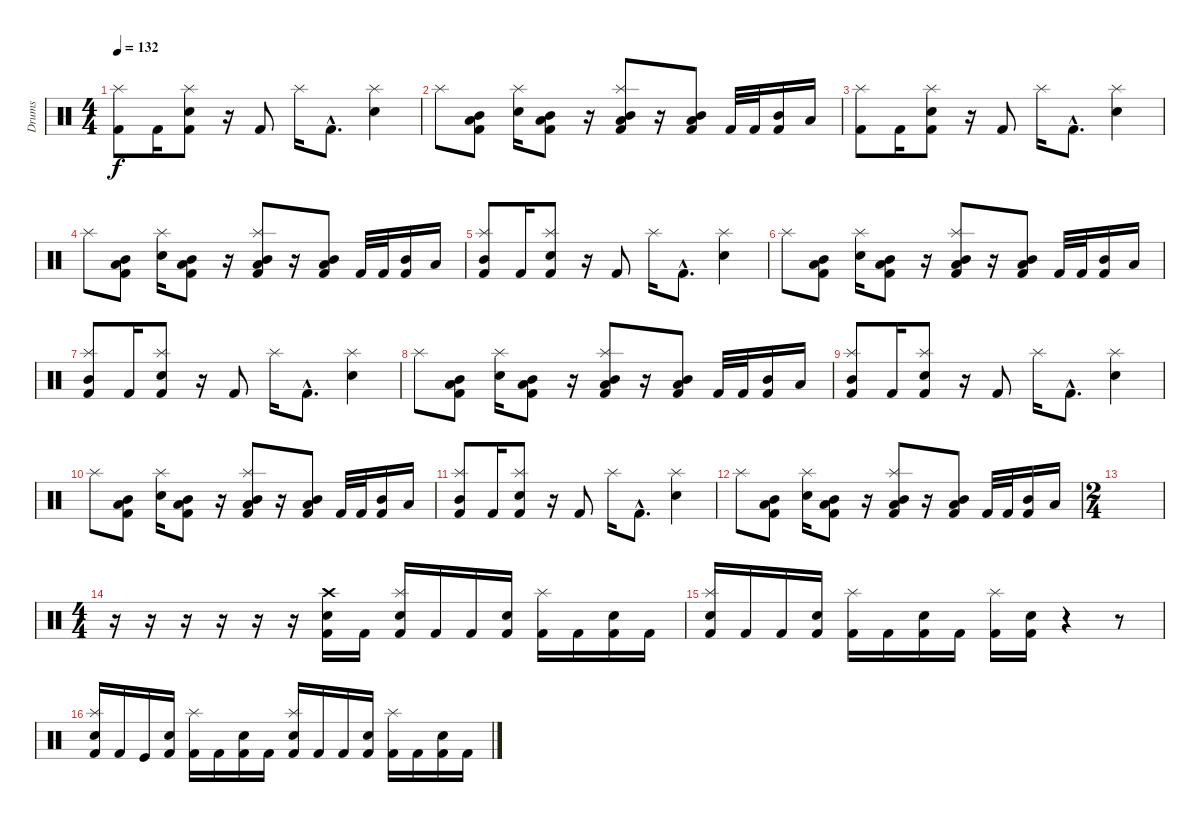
\track ("Drums" "Drums") {instrument percussion}
\staff {score}
\articulation defaults
\ts (4 4)
\tempo 132
\clef neutral
\ks c
("Kick (hit) 2" "Splash (hit)").8{dy f} "Kick (hit) 2".16 ("Kick (hit) 2" "Electric Snare (hit)" "Splash (hit)").8 r.16 "Kick (hit) 2".8 "Splash (hit)".16 "Kick (hit) 2"{hac}.8{d} ("Electric Snare (hit)" "Splash (hit)").4 |
"Splash (hit)".8 ("Kick (hit) 2" "Mid Tom (hit)" "Low Tom (hit)").8 ("Electric Snare (hit)" "Splash (hit)").16 ("Kick (hit) 2" "Mid Tom (hit)" "Low Tom (hit)").8 r.16 ("Kick (hit) 2" "Mid Tom (hit)" "Low Tom (hit)" "Splash (hit)").8 r.16 ("Kick (hit) 2" "Mid Tom (hit)" "Low Tom (hit)").8 "Kick (hit) 2".32 "Kick (hit) 2".32 ("Kick (hit) 2" "Mid Tom (hit)").16 "Low Tom (hit)".16 |
("Kick (hit) 2" "Splash (hit)").8 "Kick (hit) 2".16 ("Kick (hit) 2" "Electric Snare (hit)" "Splash (hit)").8 r.16 "Kick (hit) 2".8 "Splash (hit)".16 "Kick (hit) 2"{hac}.8{d} ("Electric Snare (hit)" "Splash (hit)").4 |
"Splash (hit)".8 ("Kick (hit) 2" "Mid Tom (hit)" "Low Tom (hit)").8 ("Electric Snare (hit)" "Splash (hit)").16 ("Kick (hit) 2" "Mid Tom (hit)" "Low Tom (hit)").8 r.16 ("Kick (hit) 2" "Mid Tom (hit)" "Low Tom (hit)" "Splash (hit)").8 r.16 ("Kick (hit) 2" "Mid Tom (hit)" "Low Tom (hit)").8 "Kick (hit) 2".32 "Kick (hit) 2".32 ("Kick (hit) 2" "Mid Tom (hit)").16 "Low Tom (hit)".16 |
("Kick (hit) 2" "Mid Tom (hit)" "Splash (hit)").8 "Kick (hit) 2".16 ("Kick (hit) 2" "Electric Snare (hit)" "Splash (hit)").8 r.16 "Kick (hit) 2".8 "Splash (hit)".16 "Kick (hit) 2"{hac}.8{d} ("Electric Snare (hit)" "Splash (hit)").4 |
"Splash (hit)".8 ("Kick (hit) 2" "Mid Tom (hit)" "Low Tom (hit)").8 ("Electric Snare (hit)" "Splash (hit)").16 ("Kick (hit) 2" "Mid Tom (hit)" "Low Tom (hit)").8 r.16 ("Kick (hit) 2" "Mid Tom (hit)" "Low Tom (hit)" "Splash (hit)").8 r.16 ("Kick (hit) 2" "Mid Tom (hit)" "Low Tom (hit)").8 "Kick (hit) 2".32 "Kick (hit) 2".32 ("Kick (hit) 2" "Mid Tom (hit)").16 "Low Tom (hit)".16 |
("Kick (hit) 2" "Mid Tom (hit)" "Splash (hit)").8 "Kick (hit) 2".16 ("Kick (hit) 2" "Electric Snare (hit)" "Splash (hit)").8 r.16 "Kick (hit) 2".8 "Splash (hit)".16 "Kick (hit) 2"{hac}.8{d} ("Electric Snare (hit)" "Splash (hit)").4 |
"Splash (hit)".8 ("Kick (hit) 2" "Mid Tom (hit)" "Low Tom (hit)").8 ("Electric Snare (hit)" "Splash (hit)").16 ("Kick (hit) 2" "Mid Tom (hit)" "Low Tom (hit)").8 r.16 ("Kick (hit) 2" "Mid Tom (hit)" "Low Tom (hit)" "Splash (hit)").8 r.16 ("Kick (hit) 2" "Mid Tom (hit)" "Low Tom (hit)").8 "Kick (hit) 2".32 "Kick (hit) 2".32 ("Kick (hit) 2" "Mid Tom (hit)").16 "Low Tom (hit)".16 |
("Kick (hit) 2" "Mid Tom (hit)" "Splash (hit)").8 "Kick (hit) 2".16 ("Kick (hit) 2" "Electric Snare (hit)" "Splash (hit)").8 r.16 "Kick (hit) 2".8 "Splash (hit)".16 "Kick (hit) 2"{hac}.8{d} ("Electric Snare (hit)" "Splash (hit)").4 |
"Splash (hit)".8 ("Kick (hit) 2" "Mid Tom (hit)" "Low Tom (hit)").8 ("Electric Snare (hit)" "Splash (hit)").16 ("Kick (hit) 2" "Mid Tom (hit)" "Low Tom (hit)").8 r.16 ("Kick (hit) 2" "Mid Tom (hit)" "Low Tom (hit)" "Splash (hit)").8 r.16 ("Kick (hit) 2" "Mid Tom (hit)" "Low Tom (hit)").8 "Kick (hit) 2".32 "Kick (hit) 2".32 ("Kick (hit) 2" "Mid Tom (hit)").16 "Low Tom (hit)".16 |
("Kick (hit) 2" "Mid Tom (hit)" "Splash (hit)").8 "Kick (hit) 2".16 ("Kick (hit) 2" "Electric Snare (hit)" "Splash (hit)").8 r.16 "Kick (hit) 2".8 "Splash (hit)".16 "Kick (hit) 2"{hac}.8{d} ("Electric Snare (hit)" "Splash (hit)").4 |
"Splash (hit)".8 ("Kick (hit) 2" "Mid Tom (hit)" "Low Tom (hit)").8 ("Electric Snare (hit)" "Splash (hit)").16 ("Kick (hit) 2" "Mid Tom (hit)" "Low Tom (hit)").8 r.16 ("Kick (hit) 2" "Mid Tom (hit)" "Low Tom (hit)" "Splash (hit)").8 r.16 ("Kick (hit) 2" "Mid Tom (hit)" "Low Tom (hit)").8 "Kick (hit) 2".32 "Kick (hit) 2".32 ("Kick (hit) 2" "Mid Tom (hit)").16 "Low Tom (hit)".16 |
\ts (2 4)
|
\ts (4 4)
r.16 r.16 r.16 r.16 r.16 r.16 ("Kick (hit) 2" "Crash high (hit)" "Electric Snare (hit)").16 "Kick (hit) 2".16 ("Kick (hit) 2" "Splash (hit)" "Electric Snare (hit)").16 "Kick (hit) 2".16 "Kick (hit) 2".16 ("Kick (hit) 2" "Electric Snare (hit)").16 ("Kick (hit) 2" "Splash (hit)").16 "Kick (hit) 2".16 ("Kick (hit) 2" "Electric Snare (hit)").16 "Kick (hit) 2".16 |
("Kick (hit) 2" "Splash (hit)" "Electric Snare (hit)").16 "Kick (hit) 2".16 "Kick (hit) 2".16 ("Kick (hit) 2" "Electric Snare (hit)").16 ("Kick (hit) 2" "Splash (hit)").16 "Kick (hit) 2".16 ("Kick (hit) 2" "Electric Snare (hit)").16 "Kick (hit) 2".16 ("Kick (hit) 2" "Splash (hit)").16 ("Kick (hit) 2" "Electric Snare (hit)").16 r.4 r.8 |
("Kick (hit) 2" "Splash (hit)" "Electric Snare (hit)").16 "Kick (hit) 2".16 "Kick (hit)".16 ("Kick (hit) 2" "Electric Snare (hit)").16 ("Kick (hit) 2" "Splash (hit)").16 "Kick (hit) 2".16 ("Kick (hit) 2" "Electric Snare (hit)").16 "Kick (hit) 2".16 ("Kick (hit) 2" "Splash (hit)" "Electric Snare (hit)").16 "Kick (hit) 2".16 "Kick (hit) 2".16 ("Kick (hit) 2" "Electric Snare (hit)").16 ("Kick (hit) 2" "Splash (hit)").16 "Kick (hit) 2".16 ("Kick (hit) 2" "Electric Snare (hit)").16 "Kick (hit) 2".16
